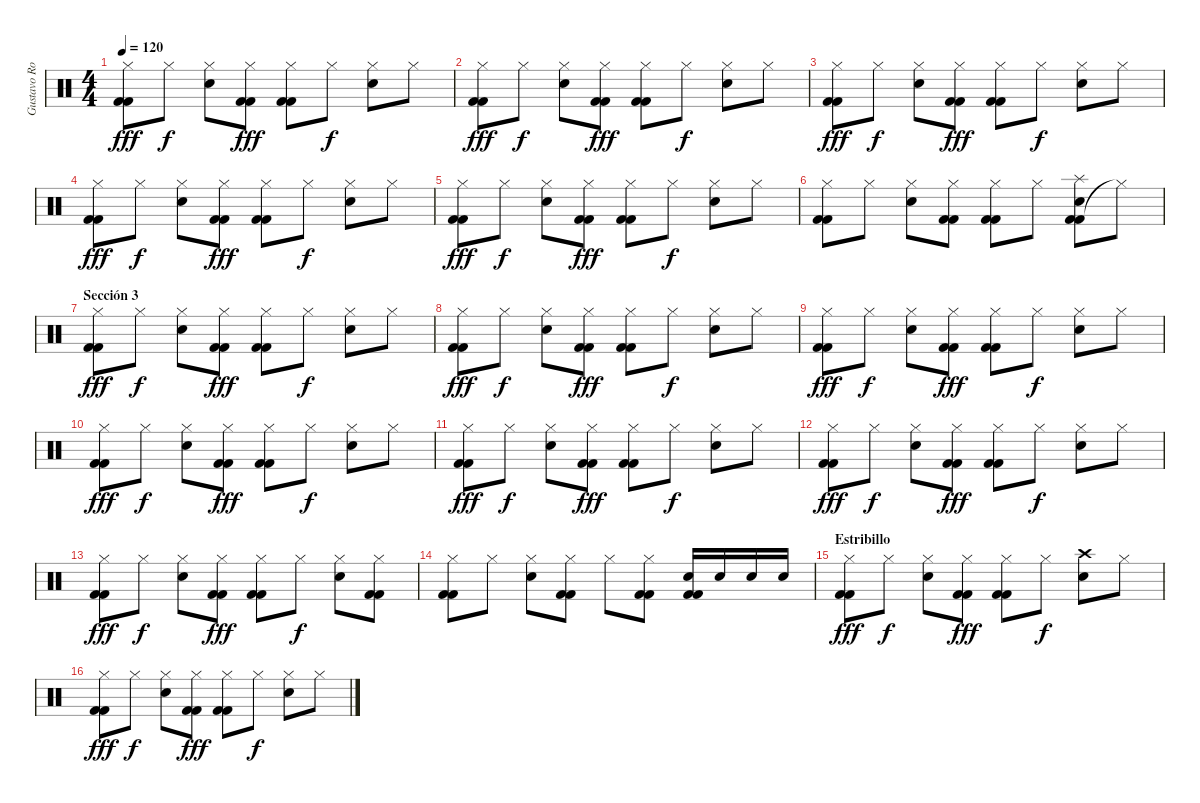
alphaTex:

\track ("Gustavo Rowek" "Gustavo Ro") {instrument percussion}
\staff {score}
\articulation defaults
\ts (4 4)
\tempo 120
\clef neutral
\ks c
("Kick (hit) 2" "Kick (hit) 2" "Hi-Hat (closed)").8{dy fff} "Hi-Hat (closed)".8{dy f} ("Snare (hit) 2" "Hi-Hat (closed)").8 ("Kick (hit) 2" "Kick (hit) 2" "Hi-Hat (closed)").8{dy fff} ("Kick (hit) 2" "Kick (hit) 2" "Hi-Hat (closed)").8 "Hi-Hat (closed)".8{dy f} ("Snare (hit) 2" "Hi-Hat (closed)").8 "Hi-Hat (closed)".8 |
("Kick (hit) 2" "Kick (hit) 2" "Hi-Hat (closed)").8{dy fff} "Hi-Hat (closed)".8{dy f} ("Snare (hit) 2" "Hi-Hat (closed)").8 ("Kick (hit) 2" "Kick (hit) 2" "Hi-Hat (closed)").8{dy fff} ("Kick (hit) 2" "Kick (hit) 2" "Hi-Hat (closed)").8 "Hi-Hat (closed)".8{dy f} ("Snare (hit) 2" "Hi-Hat (closed)").8 "Hi-Hat (closed)".8 |
("Kick (hit) 2" "Kick (hit) 2" "Hi-Hat (closed)").8{dy fff} "Hi-Hat (closed)".8{dy f} ("Snare (hit) 2" "Hi-Hat (closed)").8 ("Kick (hit) 2" "Kick (hit) 2" "Hi-Hat (closed)").8{dy fff} ("Kick (hit) 2" "Kick (hit) 2" "Hi-Hat (closed)").8 "Hi-Hat (closed)".8{dy f} ("Snare (hit) 2" "Hi-Hat (closed)").8 "Hi-Hat (closed)".8 |
("Kick (hit) 2" "Kick (hit) 2" "Hi-Hat (closed)").8{dy fff} "Hi-Hat (closed)".8{dy f} ("Snare (hit) 2" "Hi-Hat (closed)").8 ("Kick (hit) 2" "Kick (hit) 2" "Hi-Hat (closed)").8{dy fff} ("Kick (hit) 2" "Kick (hit) 2" "Hi-Hat (closed)").8 "Hi-Hat (closed)".8{dy f} ("Snare (hit) 2" "Hi-Hat (closed)").8 "Hi-Hat (closed)".8 |
("Kick (hit) 2" "Kick (hit) 2" "Hi-Hat (closed)").8{dy fff} "Hi-Hat (closed)".8{dy f} ("Snare (hit) 2" "Hi-Hat (closed)").8 ("Kick (hit) 2" "Kick (hit) 2" "Hi-Hat (closed)").8{dy fff} ("Kick (hit) 2" "Kick (hit) 2" "Hi-Hat (closed)").8 "Hi-Hat (closed)".8{dy f} ("Snare (hit) 2" "Hi-Hat (closed)").8 "Hi-Hat (closed)".8 |
("Kick (hit) 2" "Kick (hit) 2" "Hi-Hat (closed)").8 "Hi-Hat (closed)".8 ("Snare (hit) 2" "Hi-Hat (closed)").8 ("Kick (hit) 2" "Kick (hit) 2" "Hi-Hat (closed)").8 ("Kick (hit) 2" "Kick (hit) 2" "Hi-Hat (closed)").8 "Hi-Hat (closed)".8 ("Kick (hit) 2" "Kick (hit) 2" "Snare (hit) 2" "Splash (hit)").8 "Hi-Hat (closed)"{t}.8 |
\section ("" "Sección 3")
("Kick (hit) 2" "Kick (hit) 2" "Hi-Hat (closed)").8{dy fff} "Hi-Hat (closed)".8{dy f} ("Snare (hit) 2" "Hi-Hat (closed)").8 ("Kick (hit) 2" "Kick (hit) 2" "Hi-Hat (closed)").8{dy fff} ("Kick (hit) 2" "Kick (hit) 2" "Hi-Hat (closed)").8 "Hi-Hat (closed)".8{dy f} ("Snare (hit) 2" "Hi-Hat (closed)").8 "Hi-Hat (closed)".8 |
("Kick (hit) 2" "Kick (hit) 2" "Hi-Hat (closed)").8{dy fff} "Hi-Hat (closed)".8{dy f} ("Snare (hit) 2" "Hi-Hat (closed)").8 ("Kick (hit) 2" "Kick (hit) 2" "Hi-Hat (closed)").8{dy fff} ("Kick (hit) 2" "Kick (hit) 2" "Hi-Hat (closed)").8 "Hi-Hat (closed)".8{dy f} ("Snare (hit) 2" "Hi-Hat (closed)").8 "Hi-Hat (closed)".8 |
("Kick (hit) 2" "Kick (hit) 2" "Hi-Hat (closed)").8{dy fff} "Hi-Hat (closed)".8{dy f} ("Snare (hit) 2" "Hi-Hat (closed)").8 ("Kick (hit) 2" "Kick (hit) 2" "Hi-Hat (closed)").8{dy fff} ("Kick (hit) 2" "Kick (hit) 2" "Hi-Hat (closed)").8 "Hi-Hat (closed)".8{dy f} ("Snare (hit) 2" "Hi-Hat (closed)").8 "Hi-Hat (closed)".8 |
("Kick (hit) 2" "Kick (hit) 2" "Hi-Hat (closed)").8{dy fff} "Hi-Hat (closed)".8{dy f} ("Snare (hit) 2" "Hi-Hat (closed)").8 ("Kick (hit) 2" "Kick (hit) 2" "Hi-Hat (closed)").8{dy fff} ("Kick (hit) 2" "Kick (hit) 2" "Hi-Hat (closed)").8 "Hi-Hat (closed)".8{dy f} ("Snare (hit) 2" "Hi-Hat (closed)").8 "Hi-Hat (closed)".8 |
("Kick (hit) 2" "Kick (hit) 2" "Hi-Hat (closed)").8{dy fff} "Hi-Hat (closed)".8{dy f} ("Snare (hit) 2" "Hi-Hat (closed)").8 ("Kick (hit) 2" "Kick (hit) 2" "Hi-Hat (closed)").8{dy fff} ("Kick (hit) 2" "Kick (hit) 2" "Hi-Hat (closed)").8 "Hi-Hat (closed)".8{dy f} ("Snare (hit) 2" "Hi-Hat (closed)").8 "Hi-Hat (closed)".8 |
("Kick (hit) 2" "Kick (hit) 2" "Hi-Hat (closed)").8{dy fff} "Hi-Hat (closed)".8{dy f} ("Snare (hit) 2" "Hi-Hat (closed)").8 ("Kick (hit) 2" "Kick (hit) 2" "Hi-Hat (closed)").8{dy fff} ("Kick (hit) 2" "Kick (hit) 2" "Hi-Hat (closed)").8 "Hi-Hat (closed)".8{dy f} ("Snare (hit) 2" "Hi-Hat (closed)").8 "Hi-Hat (closed)".8 |
("Kick (hit) 2" "Kick (hit) 2" "Hi-Hat (closed)").8{dy fff} "Hi-Hat (closed)".8{dy f} ("Snare (hit) 2" "Hi-Hat (closed)").8 ("Kick (hit) 2" "Kick (hit) 2" "Hi-Hat (closed)").8{dy fff} ("Kick (hit) 2" "Kick (hit) 2" "Hi-Hat (closed)").8 "Hi-Hat (closed)".8{dy f} ("Snare (hit) 2" "Hi-Hat (closed)").8 ("Kick (hit) 2" "Kick (hit) 2" "Hi-Hat (closed)").8 |
("Kick (hit) 2" "Kick (hit) 2" "Hi-Hat (closed)").8 "Hi-Hat (closed)".8 ("Snare (hit) 2" "Hi-Hat (closed)").8 ("Kick (hit) 2" "Kick (hit) 2" "Hi-Hat (closed)").8 "Hi-Hat (closed)".8 ("Kick (hit) 2" "Kick (hit) 2" "Hi-Hat (closed)").8 ("Kick (hit) 2" "Kick (hit) 2" "Snare (hit) 2").16 "Snare (hit) 2".16 "Snare (hit) 2".16 "Snare (hit) 2".16 |
\section ("" "Estribillo")
("Kick (hit) 2" "Kick (hit) 2" "Hi-Hat (closed)").8{dy fff} "Hi-Hat (closed)".8{dy f} ("Snare (hit) 2" "Hi-Hat (closed)").8 ("Kick (hit) 2" "Kick (hit) 2" "Hi-Hat (closed)").8{dy fff} ("Kick (hit) 2" "Kick (hit) 2" "Hi-Hat (closed)").8 "Hi-Hat (closed)".8{dy f} ("Snare (hit) 2" "Crash high (hit)").8 "Hi-Hat (closed)".8 |
("Kick (hit) 2" "Kick (hit) 2" "Hi-Hat (closed)").8{dy fff} "Hi-Hat (closed)".8{dy f} ("Snare (hit) 2" "Hi-Hat (closed)").8 ("Kick (hit) 2" "Kick (hit) 2" "Hi-Hat (closed)").8{dy fff} ("Kick (hit) 2" "Kick (hit) 2" "Hi-Hat (closed)").8 "Hi-Hat (closed)".8{dy f} ("Snare (hit) 2" "Hi-Hat (closed)").8 "Hi-Hat (closed)".8
